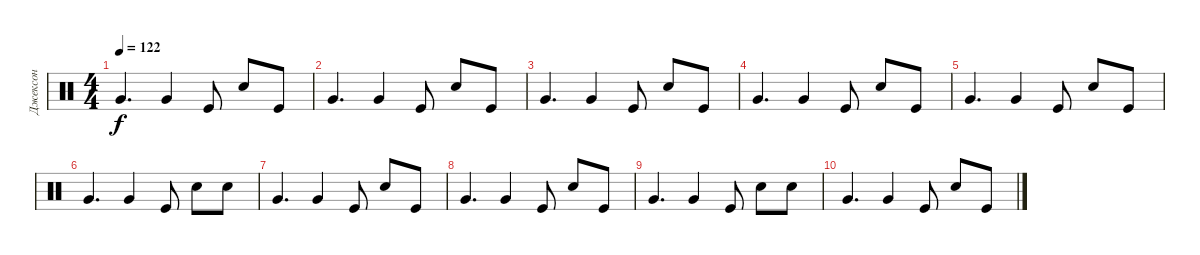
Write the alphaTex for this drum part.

\track ("Джексон" "Джексон") {instrument percussion}
\staff {score}
\articulation defaults
\ts (4 4)
\tempo 122
\clef neutral
\ks c "Very Low Tom (hit)".4{d dy f} "Very Low Tom (hit)".4 "Kick (hit)".8 "Snare (hit) 2".8 "Kick (hit)".8
|
"Very Low Tom (hit)".4{d} "Very Low Tom (hit)".4 "Kick (hit)".8 "Snare (hit) 2".8 "Kick (hit)".8 |
"Very Low Tom (hit)".4{d} "Very Low Tom (hit)".4 "Kick (hit)".8 "Snare (hit) 2".8 "Kick (hit)".8 |
"Very Low Tom (hit)".4{d} "Very Low Tom (hit)".4 "Kick (hit)".8 "Snare (hit) 2".8 "Kick (hit)".8 |
"Very Low Tom (hit)".4{d} "Very Low Tom (hit)".4 "Kick (hit)".8 "Snare (hit) 2".8 "Kick (hit)".8 |
"Very Low Tom (hit)".4{d} "Very Low Tom (hit)".4 "Kick (hit)".8 "Snare (hit) 2".8 "Snare (hit) 2".8 |
"Very Low Tom (hit)".4{d} "Very Low Tom (hit)".4 "Kick (hit)".8 "Snare (hit) 2".8 "Kick (hit)".8 |
"Very Low Tom (hit)".4{d} "Very Low Tom (hit)".4 "Kick (hit)".8 "Snare (hit) 2".8 "Kick (hit)".8 |
"Very Low Tom (hit)".4{d} "Very Low Tom (hit)".4 "Kick (hit)".8 "Snare (hit) 2".8 "Snare (hit) 2".8 |
"Very Low Tom (hit)".4{d} "Very Low Tom (hit)".4 "Kick (hit)".8 "Snare (hit) 2".8 "Kick (hit)".8
